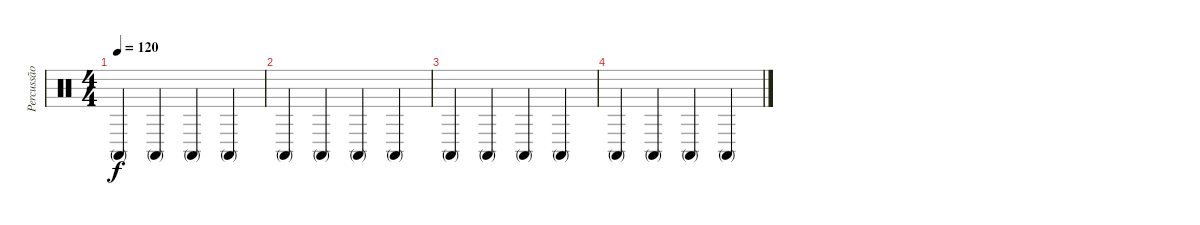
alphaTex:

\track ("Percussão" "Percussão") {instrument percussion}
\staff {score}
\articulation defaults
\ts (4 4)
\tempo 120
\clef neutral
\ks c "Conga high (mute)".4{dy f} "Conga high (mute)".4 "Conga high (mute)".4 "Conga high (mute)".4
|
"Conga high (mute)".4 "Conga high (mute)".4 "Conga high (mute)".4 "Conga high (mute)".4 |
"Conga high (mute)".4 "Conga high (mute)".4 "Conga high (mute)".4 "Conga high (mute)".4 |
"Conga high (mute)".4 "Conga high (mute)".4 "Conga high (mute)".4 "Conga high (mute)".4
